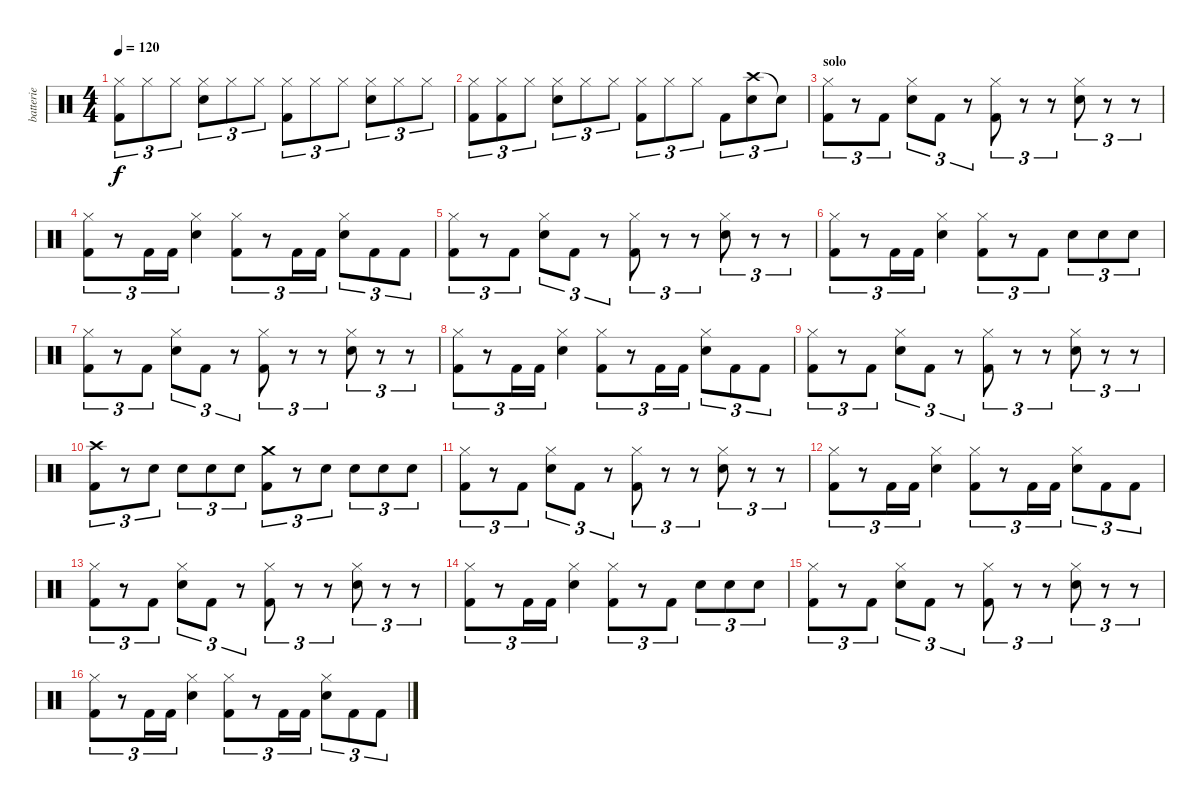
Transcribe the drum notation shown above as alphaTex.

\track ("batterie" "batterie") {instrument percussion}
\staff {score}
\articulation defaults
\ts (4 4)
\tempo 120
\clef neutral
\ks c
("Kick (hit) 2" "Hi-Hat (closed)").8{tu (3 2) dy f} "Hi-Hat (closed)".8{tu (3 2)} "Hi-Hat (closed)".8{tu (3 2)} ("Snare (hit) 2" "Hi-Hat (closed)").8{tu (3 2)} "Hi-Hat (closed)".8{tu (3 2)} "Hi-Hat (closed)".8{tu (3 2)} ("Kick (hit) 2" "Hi-Hat (closed)").8{tu (3 2)} "Hi-Hat (closed)".8{tu (3 2)} "Hi-Hat (closed)".8{tu (3 2)} ("Snare (hit) 2" "Hi-Hat (closed)").8{tu (3 2)} "Hi-Hat (closed)".8{tu (3 2)} "Hi-Hat (closed)".8{tu (3 2)} |
("Kick (hit) 2" "Hi-Hat (closed)").8{tu (3 2)} ("Kick (hit) 2" "Hi-Hat (closed)").8{tu (3 2)} "Hi-Hat (closed)".8{tu (3 2)} ("Snare (hit) 2" "Hi-Hat (closed)").8{tu (3 2)} "Hi-Hat (closed)".8{tu (3 2)} "Hi-Hat (closed)".8{tu (3 2)} ("Kick (hit) 2" "Hi-Hat (closed)").8{tu (3 2)} "Hi-Hat (closed)".8{tu (3 2)} "Hi-Hat (closed)".8{tu (3 2)} "Kick (hit) 2".8{tu (3 2)} ("Crash high (hit)" "Snare (hit) 2").8{tu (3 2)} "Snare (hit)"{t}.8{tu (3 2)} |
\section ("" "solo")
("Kick (hit) 2" "Hi-Hat (closed)").8{tu (3 2)} r.8{tu (3 2)} "Kick (hit) 2".8{tu (3 2)} ("Snare (hit) 2" "Hi-Hat (closed)").8{tu (3 2)} "Kick (hit) 2".8{tu (3 2)} r.8{tu (3 2)} ("Kick (hit) 2" "Hi-Hat (closed)").8{tu (3 2)} r.8{tu (3 2)} r.8{tu (3 2)} ("Snare (hit) 2" "Hi-Hat (closed)").8{tu (3 2)} r.8{tu (3 2)} r.8{tu (3 2)} |
("Kick (hit) 2" "Hi-Hat (closed)").8{tu (3 2)} r.8{tu (3 2)} "Kick (hit) 2".16{tu (3 2)} "Kick (hit) 2".16{tu (3 2)} ("Snare (hit) 2" "Hi-Hat (closed)").4 ("Kick (hit) 2" "Hi-Hat (closed)").8{tu (3 2)} r.8{tu (3 2)} "Kick (hit) 2".16{tu (3 2)} "Kick (hit) 2".16{tu (3 2)} ("Snare (hit) 2" "Hi-Hat (closed)").8{tu (3 2)} "Kick (hit) 2".8{tu (3 2)} "Kick (hit) 2".8{tu (3 2)} |
("Kick (hit) 2" "Hi-Hat (closed)").8{tu (3 2)} r.8{tu (3 2)} "Kick (hit) 2".8{tu (3 2)} ("Snare (hit) 2" "Hi-Hat (closed)").8{tu (3 2)} "Kick (hit) 2".8{tu (3 2)} r.8{tu (3 2)} ("Kick (hit) 2" "Hi-Hat (closed)").8{tu (3 2)} r.8{tu (3 2)} r.8{tu (3 2)} ("Snare (hit) 2" "Hi-Hat (closed)").8{tu (3 2)} r.8{tu (3 2)} r.8{tu (3 2)} |
("Kick (hit) 2" "Hi-Hat (closed)").8{tu (3 2)} r.8{tu (3 2)} "Kick (hit) 2".16{tu (3 2)} "Kick (hit) 2".16{tu (3 2)} ("Snare (hit) 2" "Hi-Hat (closed)").4 ("Kick (hit) 2" "Hi-Hat (closed)").8{tu (3 2)} r.8{tu (3 2)} "Kick (hit) 2".8{tu (3 2)} "Snare (hit) 2".8{tu (3 2)} "Snare (hit) 2".8{tu (3 2)} "Snare (hit) 2".8{tu (3 2)} |
("Kick (hit) 2" "Hi-Hat (closed)").8{tu (3 2)} r.8{tu (3 2)} "Kick (hit) 2".8{tu (3 2)} ("Snare (hit) 2" "Hi-Hat (closed)").8{tu (3 2)} "Kick (hit) 2".8{tu (3 2)} r.8{tu (3 2)} ("Kick (hit) 2" "Hi-Hat (closed)").8{tu (3 2)} r.8{tu (3 2)} r.8{tu (3 2)} ("Snare (hit) 2" "Hi-Hat (closed)").8{tu (3 2)} r.8{tu (3 2)} r.8{tu (3 2)} |
("Kick (hit) 2" "Hi-Hat (closed)").8{tu (3 2)} r.8{tu (3 2)} "Kick (hit) 2".16{tu (3 2)} "Kick (hit) 2".16{tu (3 2)} ("Snare (hit) 2" "Hi-Hat (closed)").4 ("Kick (hit) 2" "Hi-Hat (closed)").8{tu (3 2)} r.8{tu (3 2)} "Kick (hit) 2".16{tu (3 2)} "Kick (hit) 2".16{tu (3 2)} ("Snare (hit) 2" "Hi-Hat (closed)").8{tu (3 2)} "Kick (hit) 2".8{tu (3 2)} "Kick (hit) 2".8{tu (3 2)} |
("Kick (hit) 2" "Hi-Hat (closed)").8{tu (3 2)} r.8{tu (3 2)} "Kick (hit) 2".8{tu (3 2)} ("Snare (hit) 2" "Hi-Hat (closed)").8{tu (3 2)} "Kick (hit) 2".8{tu (3 2)} r.8{tu (3 2)} ("Kick (hit) 2" "Hi-Hat (closed)").8{tu (3 2)} r.8{tu (3 2)} r.8{tu (3 2)} ("Snare (hit) 2" "Hi-Hat (closed)").8{tu (3 2)} r.8{tu (3 2)} r.8{tu (3 2)} |
("Crash high (hit)" "Kick (hit) 2").8{tu (3 2)} r.8{tu (3 2)} "Snare (hit) 2".8{tu (3 2)} "Snare (hit) 2".8{tu (3 2)} "Snare (hit) 2".8{tu (3 2)} "Snare (hit) 2".8{tu (3 2)} ("Crash medium (hit)" "Kick (hit) 2").8{tu (3 2)} r.8{tu (3 2)} "Snare (hit) 2".8{tu (3 2)} "Snare (hit) 2".8{tu (3 2)} "Snare (hit) 2".8{tu (3 2)} "Snare (hit) 2".8{tu (3 2)} |
("Kick (hit) 2" "Hi-Hat (closed)").8{tu (3 2)} r.8{tu (3 2)} "Kick (hit) 2".8{tu (3 2)} ("Snare (hit) 2" "Hi-Hat (closed)").8{tu (3 2)} "Kick (hit) 2".8{tu (3 2)} r.8{tu (3 2)} ("Kick (hit) 2" "Hi-Hat (closed)").8{tu (3 2)} r.8{tu (3 2)} r.8{tu (3 2)} ("Snare (hit) 2" "Hi-Hat (closed)").8{tu (3 2)} r.8{tu (3 2)} r.8{tu (3 2)} |
("Kick (hit) 2" "Hi-Hat (closed)").8{tu (3 2)} r.8{tu (3 2)} "Kick (hit) 2".16{tu (3 2)} "Kick (hit) 2".16{tu (3 2)} ("Snare (hit) 2" "Hi-Hat (closed)").4 ("Kick (hit) 2" "Hi-Hat (closed)").8{tu (3 2)} r.8{tu (3 2)} "Kick (hit) 2".16{tu (3 2)} "Kick (hit) 2".16{tu (3 2)} ("Snare (hit) 2" "Hi-Hat (closed)").8{tu (3 2)} "Kick (hit) 2".8{tu (3 2)} "Kick (hit) 2".8{tu (3 2)} |
("Kick (hit) 2" "Hi-Hat (closed)").8{tu (3 2)} r.8{tu (3 2)} "Kick (hit) 2".8{tu (3 2)} ("Snare (hit) 2" "Hi-Hat (closed)").8{tu (3 2)} "Kick (hit) 2".8{tu (3 2)} r.8{tu (3 2)} ("Kick (hit) 2" "Hi-Hat (closed)").8{tu (3 2)} r.8{tu (3 2)} r.8{tu (3 2)} ("Snare (hit) 2" "Hi-Hat (closed)").8{tu (3 2)} r.8{tu (3 2)} r.8{tu (3 2)} |
("Kick (hit) 2" "Hi-Hat (closed)").8{tu (3 2)} r.8{tu (3 2)} "Kick (hit) 2".16{tu (3 2)} "Kick (hit) 2".16{tu (3 2)} ("Snare (hit) 2" "Hi-Hat (closed)").4 ("Kick (hit) 2" "Hi-Hat (closed)").8{tu (3 2)} r.8{tu (3 2)} "Kick (hit) 2".8{tu (3 2)} "Snare (hit) 2".8{tu (3 2)} "Snare (hit) 2".8{tu (3 2)} "Snare (hit) 2".8{tu (3 2)} |
("Kick (hit) 2" "Hi-Hat (closed)").8{tu (3 2)} r.8{tu (3 2)} "Kick (hit) 2".8{tu (3 2)} ("Snare (hit) 2" "Hi-Hat (closed)").8{tu (3 2)} "Kick (hit) 2".8{tu (3 2)} r.8{tu (3 2)} ("Kick (hit) 2" "Hi-Hat (closed)").8{tu (3 2)} r.8{tu (3 2)} r.8{tu (3 2)} ("Snare (hit) 2" "Hi-Hat (closed)").8{tu (3 2)} r.8{tu (3 2)} r.8{tu (3 2)} |
("Kick (hit) 2" "Hi-Hat (closed)").8{tu (3 2)} r.8{tu (3 2)} "Kick (hit) 2".16{tu (3 2)} "Kick (hit) 2".16{tu (3 2)} ("Snare (hit) 2" "Hi-Hat (closed)").4 ("Kick (hit) 2" "Hi-Hat (closed)").8{tu (3 2)} r.8{tu (3 2)} "Kick (hit) 2".16{tu (3 2)} "Kick (hit) 2".16{tu (3 2)} ("Snare (hit) 2" "Hi-Hat (closed)").8{tu (3 2)} "Kick (hit) 2".8{tu (3 2)} "Kick (hit) 2".8{tu (3 2)}
